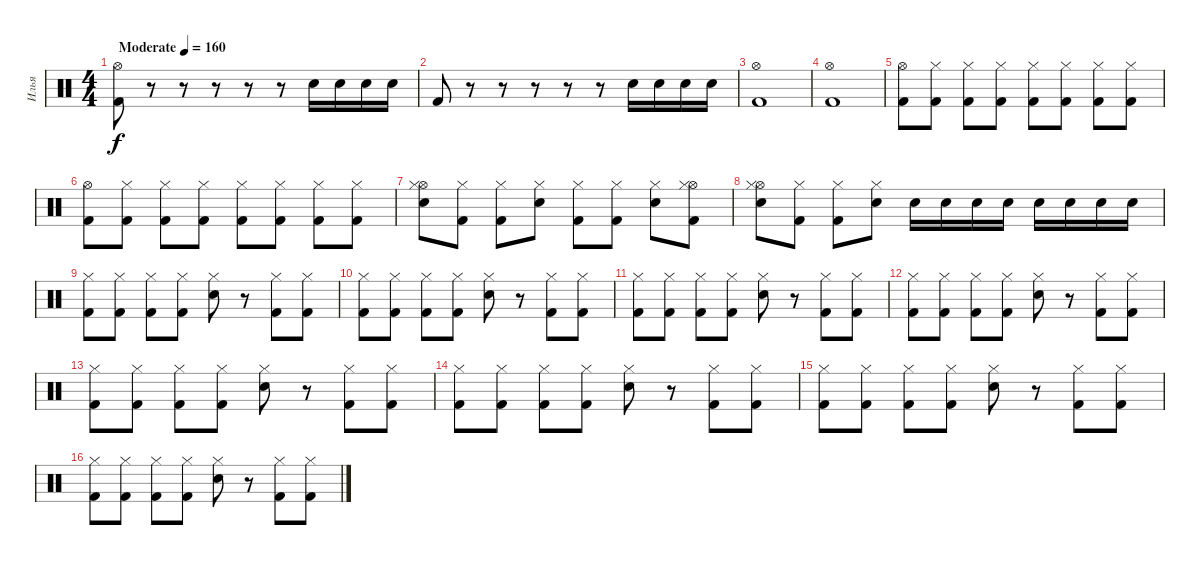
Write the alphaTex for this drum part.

\track ("Илья" "Илья") {instrument percussion}
\staff {score}
\articulation defaults
\ts (4 4)
\tempo (160 "Moderate")
\clef neutral
\ks c
("Kick (hit) 2" "Hi-Hat (open)").8{dy f} r.8 r.8 r.8 r.8 r.8 "Electric Snare (hit)".16 "Electric Snare (hit)".16 "Electric Snare (hit)".16 "Electric Snare (hit)".16 |
"Kick (hit) 2".8 r.8 r.8 r.8 r.8 r.8 "Electric Snare (hit)".16 "Electric Snare (hit)".16 "Electric Snare (hit)".16 "Electric Snare (hit)".16 |
("Kick (hit) 2" "Hi-Hat (open)").1 |
("Kick (hit) 2" "Hi-Hat (open)").1 |
("Kick (hit) 2" "Hi-Hat (open)").8 ("Hi-Hat (closed)" "Kick (hit) 2").8 ("Hi-Hat (closed)" "Kick (hit) 2").8 ("Hi-Hat (closed)" "Kick (hit) 2").8 ("Hi-Hat (closed)" "Kick (hit) 2").8 ("Hi-Hat (closed)" "Kick (hit) 2").8 ("Hi-Hat (closed)" "Kick (hit) 2").8 ("Hi-Hat (closed)" "Kick (hit) 2").8 |
("Kick (hit) 2" "Hi-Hat (open)").8 ("Hi-Hat (closed)" "Kick (hit) 2").8 ("Hi-Hat (closed)" "Kick (hit) 2").8 ("Hi-Hat (closed)" "Kick (hit) 2").8 ("Hi-Hat (closed)" "Kick (hit) 2").8 ("Hi-Hat (closed)" "Kick (hit) 2").8 ("Hi-Hat (closed)" "Kick (hit) 2").8 ("Hi-Hat (closed)" "Kick (hit) 2").8 |
("Electric Snare (hit)" "Hi-Hat (open)" "Hi-Hat (closed)").8 ("Kick (hit) 2" "Hi-Hat (closed)").8 ("Kick (hit) 2" "Hi-Hat (closed)").8 ("Electric Snare (hit)" "Hi-Hat (closed)").8 ("Kick (hit) 2" "Hi-Hat (closed)").8 ("Kick (hit) 2" "Hi-Hat (closed)").8 ("Electric Snare (hit)" "Hi-Hat (closed)").8 ("Kick (hit) 2" "Hi-Hat (open)" "Hi-Hat (closed)").8 |
("Electric Snare (hit)" "Hi-Hat (open)" "Hi-Hat (closed)").8 ("Kick (hit) 2" "Hi-Hat (closed)").8 ("Kick (hit) 2" "Hi-Hat (closed)").8 ("Electric Snare (hit)" "Hi-Hat (closed)").8 "Electric Snare (hit)".16 "Electric Snare (hit)".16 "Electric Snare (hit)".16 "Electric Snare (hit)".16 "Electric Snare (hit)".16 "Electric Snare (hit)".16 "Electric Snare (hit)".16 "Electric Snare (hit)".16 |
("Kick (hit) 2" "Hi-Hat (closed)").8 ("Kick (hit) 2" "Hi-Hat (closed)").8 ("Kick (hit) 2" "Hi-Hat (closed)").8 ("Kick (hit) 2" "Hi-Hat (closed)").8 ("Electric Snare (hit)" "Hi-Hat (closed)").8 r.8 ("Kick (hit) 2" "Hi-Hat (closed)").8 ("Kick (hit) 2" "Hi-Hat (closed)").8 |
("Kick (hit) 2" "Hi-Hat (closed)").8 ("Kick (hit) 2" "Hi-Hat (closed)").8 ("Kick (hit) 2" "Hi-Hat (closed)").8 ("Kick (hit) 2" "Hi-Hat (closed)").8 ("Electric Snare (hit)" "Hi-Hat (closed)").8 r.8 ("Kick (hit) 2" "Hi-Hat (closed)").8 ("Kick (hit) 2" "Hi-Hat (closed)").8 |
("Kick (hit) 2" "Hi-Hat (closed)").8 ("Kick (hit) 2" "Hi-Hat (closed)").8 ("Kick (hit) 2" "Hi-Hat (closed)").8 ("Kick (hit) 2" "Hi-Hat (closed)").8 ("Electric Snare (hit)" "Hi-Hat (closed)").8 r.8 ("Kick (hit) 2" "Hi-Hat (closed)").8 ("Kick (hit) 2" "Hi-Hat (closed)").8 |
("Kick (hit) 2" "Hi-Hat (closed)").8 ("Kick (hit) 2" "Hi-Hat (closed)").8 ("Kick (hit) 2" "Hi-Hat (closed)").8 ("Kick (hit) 2" "Hi-Hat (closed)").8 ("Electric Snare (hit)" "Hi-Hat (closed)").8 r.8 ("Kick (hit) 2" "Hi-Hat (closed)").8 ("Kick (hit) 2" "Hi-Hat (closed)").8 |
("Kick (hit) 2" "Hi-Hat (closed)").8 ("Kick (hit) 2" "Hi-Hat (closed)").8 ("Kick (hit) 2" "Hi-Hat (closed)").8 ("Kick (hit) 2" "Hi-Hat (closed)").8 ("Electric Snare (hit)" "Hi-Hat (closed)").8 r.8 ("Kick (hit) 2" "Hi-Hat (closed)").8 ("Kick (hit) 2" "Hi-Hat (closed)").8 |
("Kick (hit) 2" "Hi-Hat (closed)").8 ("Kick (hit) 2" "Hi-Hat (closed)").8 ("Kick (hit) 2" "Hi-Hat (closed)").8 ("Kick (hit) 2" "Hi-Hat (closed)").8 ("Electric Snare (hit)" "Hi-Hat (closed)").8 r.8 ("Kick (hit) 2" "Hi-Hat (closed)").8 ("Kick (hit) 2" "Hi-Hat (closed)").8 |
("Kick (hit) 2" "Hi-Hat (closed)").8 ("Kick (hit) 2" "Hi-Hat (closed)").8 ("Kick (hit) 2" "Hi-Hat (closed)").8 ("Kick (hit) 2" "Hi-Hat (closed)").8 ("Electric Snare (hit)" "Hi-Hat (closed)").8 r.8 ("Kick (hit) 2" "Hi-Hat (closed)").8 ("Kick (hit) 2" "Hi-Hat (closed)").8 |
("Kick (hit) 2" "Hi-Hat (closed)").8 ("Kick (hit) 2" "Hi-Hat (closed)").8 ("Kick (hit) 2" "Hi-Hat (closed)").8 ("Kick (hit) 2" "Hi-Hat (closed)").8 ("Electric Snare (hit)" "Hi-Hat (closed)").8 r.8 ("Kick (hit) 2" "Hi-Hat (closed)").8 ("Kick (hit) 2" "Hi-Hat (closed)").8
